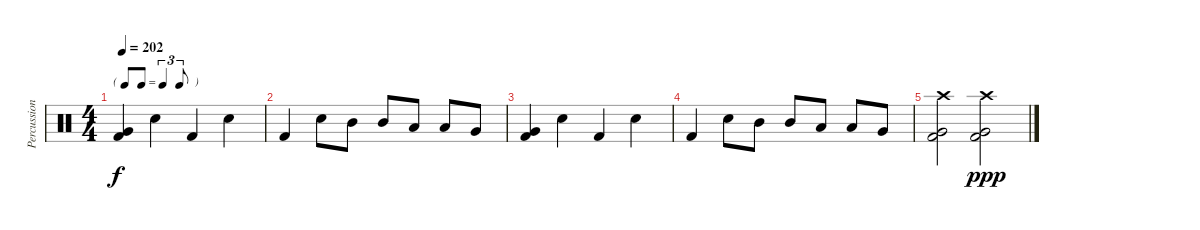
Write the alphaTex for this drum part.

\track ("Percussion" "Percussion") {instrument percussion}
\staff {score}
\articulation defaults
\ts (4 4)
\tf triplet8th
\tempo 202
\clef neutral
\ks c
("Very Low Tom (hit)" "Kick (hit) 2").4{dy f} "Electric Snare (hit)".4 "Kick (hit) 2".4 "Electric Snare (hit)".4 |
"Kick (hit) 2".4 "Electric Snare (hit)".8 "Mid Tom (hit)".8 "Mid Tom (hit)".8 "Low Tom (hit)".8 "Low Tom (hit)".8 "Very Low Tom (hit)".8 |
("Very Low Tom (hit)" "Kick (hit) 2").4 "Electric Snare (hit)".4 "Kick (hit) 2".4 "Electric Snare (hit)".4 |
"Kick (hit) 2".4 "Electric Snare (hit)".8 "Mid Tom (hit)".8 "Mid Tom (hit)".8 "Low Tom (hit)".8 "Low Tom (hit)".8 "Very Low Tom (hit)".8 |
("Crash high (hit)" "Very Low Tom (hit)" "Kick (hit) 2").2 ("Crash high (hit)" "Very Low Tom (hit)" "Kick (hit) 2").2{dy ppp}
